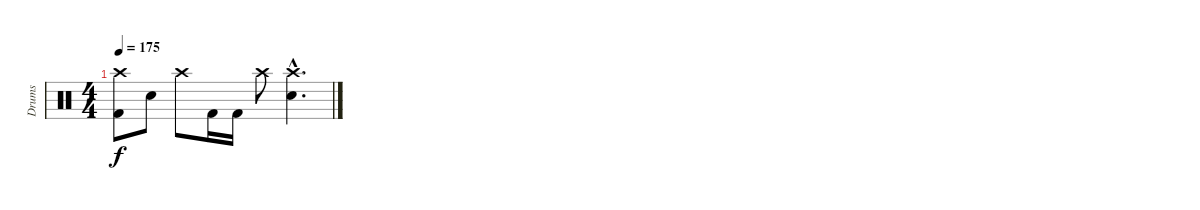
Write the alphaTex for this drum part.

\track ("Drums" "Drums") {instrument percussion}
\staff {score}
\articulation defaults
\ts (4 4)
\tempo 175
\clef neutral
\ks c
("Crash high (hit)" "Kick (hit) 2").8{dy f} "Electric Snare (hit)".8 "Crash high (hit)".8 "Kick (hit) 2".16 "Kick (hit) 2".16 "Crash high (hit)".8 ("Crash high (hit)"{hac} "Electric Snare (hit)"{hac}).4{d}
